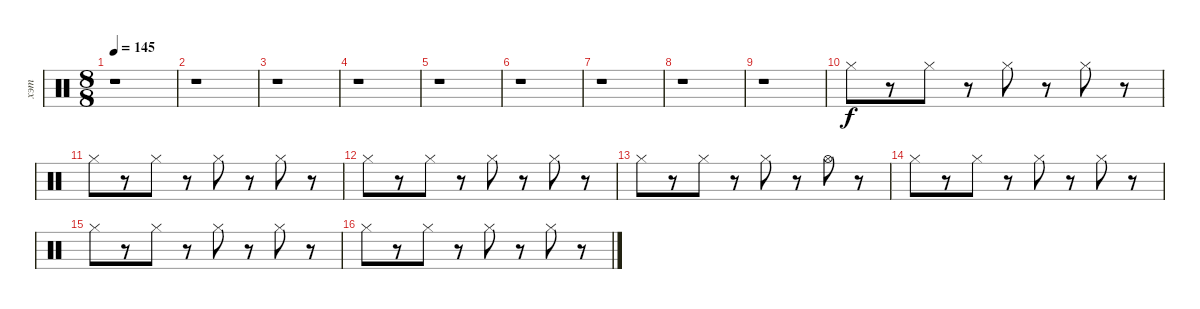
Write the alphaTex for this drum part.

\track ("хэт" "хэт") {instrument percussion}
\staff {score}
\articulation defaults
\ts (8 8)
\tempo 145
\clef neutral
\ks c
r.1{dy f} |
r.1 |
r.1 |
r.1 |
r.1 |
r.1 |
r.1 |
r.1 |
r.1 |
"Hi-Hat (closed)".8 r.8 "Hi-Hat (closed)".8 r.8 "Hi-Hat (closed)".8 r.8 "Hi-Hat (closed)".8 r.8 |
"Hi-Hat (closed)".8 r.8 "Hi-Hat (closed)".8 r.8 "Hi-Hat (closed)".8 r.8 "Hi-Hat (closed)".8 r.8 |
"Hi-Hat (closed)".8 r.8 "Hi-Hat (closed)".8 r.8 "Hi-Hat (closed)".8 r.8 "Hi-Hat (closed)".8 r.8 |
"Hi-Hat (closed)".8 r.8 "Hi-Hat (closed)".8 r.8 "Hi-Hat (closed)".8 r.8 "Hi-Hat (open)".8 r.8 |
"Hi-Hat (closed)".8 r.8 "Hi-Hat (closed)".8 r.8 "Hi-Hat (closed)".8 r.8 "Hi-Hat (closed)".8 r.8 |
"Hi-Hat (closed)".8 r.8 "Hi-Hat (closed)".8 r.8 "Hi-Hat (closed)".8 r.8 "Hi-Hat (closed)".8 r.8 |
"Hi-Hat (closed)".8 r.8 "Hi-Hat (closed)".8 r.8 "Hi-Hat (closed)".8 r.8 "Hi-Hat (closed)".8 r.8
